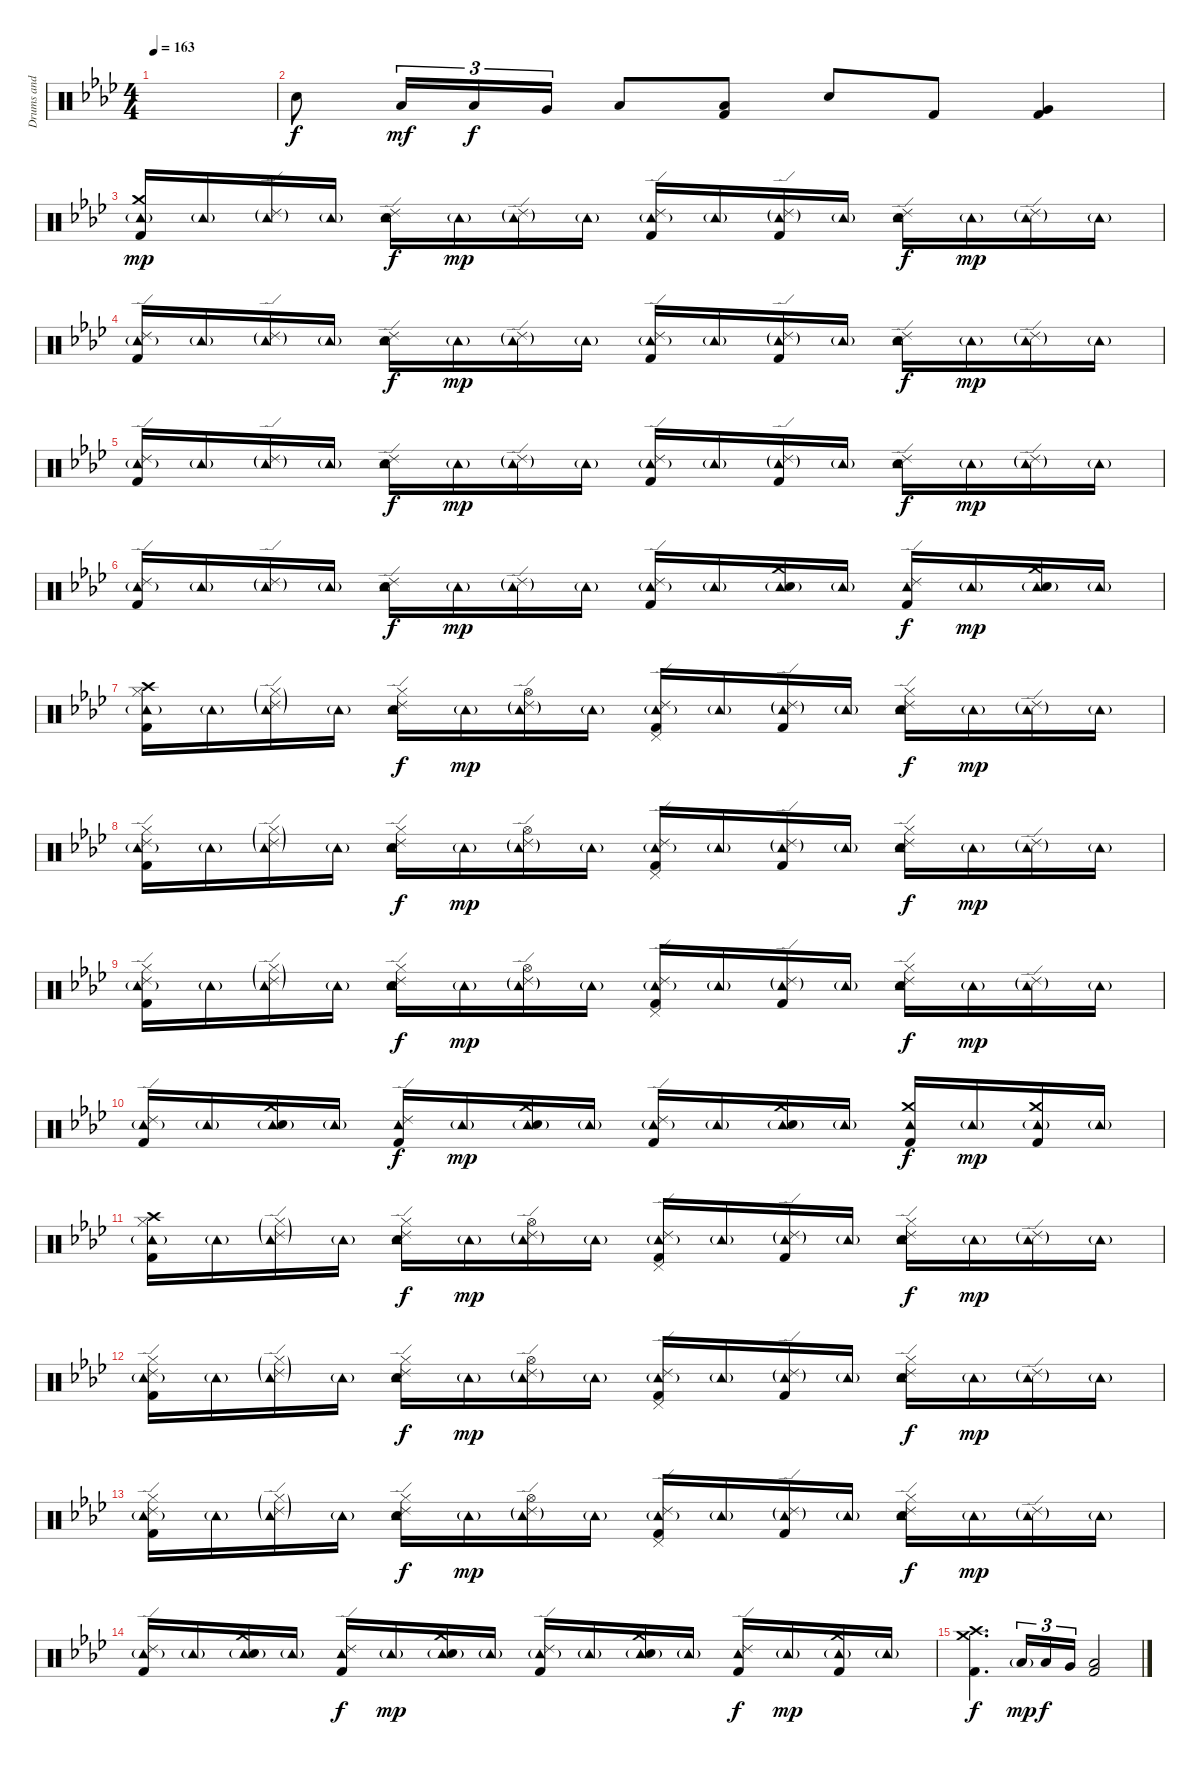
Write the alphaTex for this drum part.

\track ("Drums and Perc." "Drums and ") {instrument percussion}
\staff {score}
\articulation defaults
\ts (4 4)
\tempo 163
\clef neutral
\ks fminor
|
"Snare (hit) 2".8{dy f} "Low Tom (hit)".16{tu (3 2) dy mf} "Low Tom (hit)".16{tu (3 2) dy f} "Very Low Tom (hit)".16{tu (3 2)} "Low Floor Tom (hit)".8 ("Low Floor Tom (hit)" "Kick (hit) 2").8 "Snare (hit) 2".8 "Kick (hit) 2".8 ("Very Low Tom (hit)" "Kick (hit) 2").4 |
("Crash medium (hit)" "Tambourine (hit)"{g} "Kick (hit) 2").16{dy mp} "Tambourine (hit)"{g}.16 ("Ride (edge) 2"{g} "Tambourine (hit)"{g}).16 "Tambourine (hit)"{g}.16 ("Ride (edge) 2" "Tambourine (hit)" "Snare (hit) 2").16{dy f} "Tambourine (hit)"{g}.16{dy mp} ("Ride (edge) 2"{g} "Tambourine (hit)"{g}).16 "Tambourine (hit)"{g}.16 ("Ride (edge) 2" "Tambourine (hit)"{g} "Kick (hit) 2").16 "Tambourine (hit)"{g}.16 ("Ride (edge) 2"{g} "Tambourine (hit)"{g} "Kick (hit) 2").16 "Tambourine (hit)"{g}.16 ("Ride (edge) 2" "Tambourine (hit)" "Snare (hit) 2").16{dy f} "Tambourine (hit)"{g}.16{dy mp} ("Ride (edge) 2"{g} "Tambourine (hit)"{g}).16 "Tambourine (hit)"{g}.16 |
("Ride (edge) 2" "Tambourine (hit)"{g} "Kick (hit) 2").16 "Tambourine (hit)"{g}.16 ("Ride (edge) 2"{g} "Tambourine (hit)"{g}).16 "Tambourine (hit)"{g}.16 ("Ride (edge) 2" "Tambourine (hit)" "Snare (hit) 2").16{dy f} "Tambourine (hit)"{g}.16{dy mp} ("Ride (edge) 2"{g} "Tambourine (hit)"{g}).16 "Tambourine (hit)"{g}.16 ("Ride (edge) 2" "Tambourine (hit)"{g} "Kick (hit) 2").16 "Tambourine (hit)"{g}.16 ("Ride (edge) 2"{g} "Tambourine (hit)"{g} "Kick (hit) 2").16 "Tambourine (hit)"{g}.16 ("Ride (edge) 2" "Tambourine (hit)" "Snare (hit) 2").16{dy f} "Tambourine (hit)"{g}.16{dy mp} ("Ride (edge) 2"{g} "Tambourine (hit)"{g}).16 "Tambourine (hit)"{g}.16 |
("Ride (edge) 2" "Tambourine (hit)"{g} "Kick (hit) 2").16 "Tambourine (hit)"{g}.16 ("Ride (edge) 2"{g} "Tambourine (hit)"{g}).16 "Tambourine (hit)"{g}.16 ("Ride (edge) 2" "Tambourine (hit)" "Snare (hit) 2").16{dy f} "Tambourine (hit)"{g}.16{dy mp} ("Ride (edge) 2"{g} "Tambourine (hit)"{g}).16 "Tambourine (hit)"{g}.16 ("Ride (edge) 2" "Tambourine (hit)"{g} "Kick (hit) 2").16 "Tambourine (hit)"{g}.16 ("Ride (edge) 2"{g} "Tambourine (hit)"{g} "Kick (hit) 2").16 "Tambourine (hit)"{g}.16 ("Ride (edge) 2" "Tambourine (hit)" "Snare (hit) 2").16{dy f} "Tambourine (hit)"{g}.16{dy mp} ("Ride (edge) 2"{g} "Tambourine (hit)"{g}).16 "Tambourine (hit)"{g}.16 |
("Ride (edge) 2" "Tambourine (hit)"{g} "Kick (hit) 2").16 "Tambourine (hit)"{g}.16 ("Ride (edge) 2"{g} "Tambourine (hit)"{g}).16 "Tambourine (hit)"{g}.16 ("Ride (edge) 2" "Tambourine (hit)" "Snare (hit) 2").16{dy f} "Tambourine (hit)"{g}.16{dy mp} ("Ride (edge) 2"{g} "Tambourine (hit)"{g}).16 "Tambourine (hit)"{g}.16 ("Ride (edge) 2" "Tambourine (hit)"{g} "Kick (hit) 2").16 "Tambourine (hit)"{g}.16 ("Crash medium (hit)" "Tambourine (hit)"{g} "Snare (hit) 2").16 "Tambourine (hit)"{g}.16 ("Ride (edge) 2" "Tambourine (hit)" "Kick (hit) 2").16{dy f} "Tambourine (hit)"{g}.16{dy mp} ("Crash medium (hit)" "Tambourine (hit)"{g} "Snare (hit) 2").16 "Tambourine (hit)"{g}.16 |
("Crash high (hit)" "Tambourine (hit)"{g} "Hi-Hat (closed)" "Kick (hit) 2").16 "Tambourine (hit)"{g}.16 ("Ride (edge) 2"{g} "Tambourine (hit)"{g} "Hi-Hat (closed)"{g}).16 "Tambourine (hit)"{g}.16 ("Ride (edge) 2" "Tambourine (hit)" "Hi-Hat (closed)" "Snare (hit) 2").16{dy f} "Tambourine (hit)"{g}.16{dy mp} ("Ride (edge) 2"{g} "Tambourine (hit)"{g} "Hi-Hat (open)").16 "Tambourine (hit)"{g}.16 ("Ride (edge) 2" "Tambourine (hit)"{g} "Pedal Hi-Hat (hit)" "Kick (hit) 2").16 "Tambourine (hit)"{g}.16 ("Ride (edge) 2"{g} "Tambourine (hit)"{g} "Kick (hit) 2").16 "Tambourine (hit)"{g}.16 ("Ride (edge) 2" "Tambourine (hit)" "Hi-Hat (closed)" "Snare (hit) 2").16{dy f} "Tambourine (hit)"{g}.16{dy mp} ("Ride (edge) 2"{g} "Tambourine (hit)"{g}).16 "Tambourine (hit)"{g}.16 |
("Ride (edge) 2" "Tambourine (hit)"{g} "Hi-Hat (closed)" "Kick (hit) 2").16 "Tambourine (hit)"{g}.16 ("Ride (edge) 2"{g} "Tambourine (hit)"{g} "Hi-Hat (closed)"{g}).16 "Tambourine (hit)"{g}.16 ("Ride (edge) 2" "Tambourine (hit)" "Hi-Hat (closed)" "Snare (hit) 2").16{dy f} "Tambourine (hit)"{g}.16{dy mp} ("Ride (edge) 2"{g} "Tambourine (hit)"{g} "Hi-Hat (open)").16 "Tambourine (hit)"{g}.16 ("Ride (edge) 2" "Tambourine (hit)"{g} "Pedal Hi-Hat (hit)" "Kick (hit) 2").16 "Tambourine (hit)"{g}.16 ("Ride (edge) 2"{g} "Tambourine (hit)"{g} "Kick (hit) 2").16 "Tambourine (hit)"{g}.16 ("Ride (edge) 2" "Tambourine (hit)" "Hi-Hat (closed)" "Snare (hit) 2").16{dy f} "Tambourine (hit)"{g}.16{dy mp} ("Ride (edge) 2"{g} "Tambourine (hit)"{g}).16 "Tambourine (hit)"{g}.16 |
("Ride (edge) 2" "Tambourine (hit)"{g} "Hi-Hat (closed)" "Kick (hit) 2").16 "Tambourine (hit)"{g}.16 ("Ride (edge) 2"{g} "Tambourine (hit)"{g} "Hi-Hat (closed)"{g}).16 "Tambourine (hit)"{g}.16 ("Ride (edge) 2" "Tambourine (hit)" "Hi-Hat (closed)" "Snare (hit) 2").16{dy f} "Tambourine (hit)"{g}.16{dy mp} ("Ride (edge) 2"{g} "Tambourine (hit)"{g} "Hi-Hat (open)").16 "Tambourine (hit)"{g}.16 ("Ride (edge) 2" "Tambourine (hit)"{g} "Pedal Hi-Hat (hit)" "Kick (hit) 2").16 "Tambourine (hit)"{g}.16 ("Ride (edge) 2"{g} "Tambourine (hit)"{g} "Kick (hit) 2").16 "Tambourine (hit)"{g}.16 ("Ride (edge) 2" "Tambourine (hit)" "Hi-Hat (closed)" "Snare (hit) 2").16{dy f} "Tambourine (hit)"{g}.16{dy mp} ("Ride (edge) 2"{g} "Tambourine (hit)"{g}).16 "Tambourine (hit)"{g}.16 |
("Ride (edge) 2" "Tambourine (hit)"{g} "Kick (hit) 2").16 "Tambourine (hit)"{g}.16 ("Crash medium (hit)" "Tambourine (hit)"{g} "Snare (hit) 2").16 "Tambourine (hit)"{g}.16 ("Ride (edge) 2" "Tambourine (hit)" "Kick (hit) 2").16{dy f} "Tambourine (hit)"{g}.16{dy mp} ("Crash medium (hit)" "Tambourine (hit)"{g} "Snare (hit) 2").16 "Tambourine (hit)"{g}.16 ("Ride (edge) 2" "Tambourine (hit)"{g} "Kick (hit) 2").16 "Tambourine (hit)"{g}.16 ("Crash medium (hit)" "Tambourine (hit)"{g} "Snare (hit) 2").16 "Tambourine (hit)"{g}.16 ("Crash medium (hit)" "Tambourine (hit)" "Kick (hit) 2").16{dy f} "Tambourine (hit)"{g}.16{dy mp} ("Crash medium (hit)" "Tambourine (hit)"{g} "Kick (hit) 2").16 "Tambourine (hit)"{g}.16 |
("Crash high (hit)" "Tambourine (hit)"{g} "Hi-Hat (closed)" "Kick (hit) 2").16 "Tambourine (hit)"{g}.16 ("Ride (edge) 2"{g} "Tambourine (hit)"{g} "Hi-Hat (closed)"{g}).16 "Tambourine (hit)"{g}.16 ("Ride (edge) 2" "Tambourine (hit)" "Hi-Hat (closed)" "Snare (hit) 2").16{dy f} "Tambourine (hit)"{g}.16{dy mp} ("Ride (edge) 2"{g} "Tambourine (hit)"{g} "Hi-Hat (open)").16 "Tambourine (hit)"{g}.16 ("Ride (edge) 2" "Tambourine (hit)"{g} "Pedal Hi-Hat (hit)" "Kick (hit) 2").16 "Tambourine (hit)"{g}.16 ("Ride (edge) 2"{g} "Tambourine (hit)"{g} "Kick (hit) 2").16 "Tambourine (hit)"{g}.16 ("Ride (edge) 2" "Tambourine (hit)" "Hi-Hat (closed)" "Snare (hit) 2").16{dy f} "Tambourine (hit)"{g}.16{dy mp} ("Ride (edge) 2"{g} "Tambourine (hit)"{g}).16 "Tambourine (hit)"{g}.16 |
("Ride (edge) 2" "Tambourine (hit)"{g} "Hi-Hat (closed)" "Kick (hit) 2").16 "Tambourine (hit)"{g}.16 ("Ride (edge) 2"{g} "Tambourine (hit)"{g} "Hi-Hat (closed)"{g}).16 "Tambourine (hit)"{g}.16 ("Ride (edge) 2" "Tambourine (hit)" "Hi-Hat (closed)" "Snare (hit) 2").16{dy f} "Tambourine (hit)"{g}.16{dy mp} ("Ride (edge) 2"{g} "Tambourine (hit)"{g} "Hi-Hat (open)").16 "Tambourine (hit)"{g}.16 ("Ride (edge) 2" "Tambourine (hit)"{g} "Pedal Hi-Hat (hit)" "Kick (hit) 2").16 "Tambourine (hit)"{g}.16 ("Ride (edge) 2"{g} "Tambourine (hit)"{g} "Kick (hit) 2").16 "Tambourine (hit)"{g}.16 ("Ride (edge) 2" "Tambourine (hit)" "Hi-Hat (closed)" "Snare (hit) 2").16{dy f} "Tambourine (hit)"{g}.16{dy mp} ("Ride (edge) 2"{g} "Tambourine (hit)"{g}).16 "Tambourine (hit)"{g}.16 |
("Ride (edge) 2" "Tambourine (hit)"{g} "Hi-Hat (closed)" "Kick (hit) 2").16 "Tambourine (hit)"{g}.16 ("Ride (edge) 2"{g} "Tambourine (hit)"{g} "Hi-Hat (closed)"{g}).16 "Tambourine (hit)"{g}.16 ("Ride (edge) 2" "Tambourine (hit)" "Hi-Hat (closed)" "Snare (hit) 2").16{dy f} "Tambourine (hit)"{g}.16{dy mp} ("Ride (edge) 2"{g} "Tambourine (hit)"{g} "Hi-Hat (open)").16 "Tambourine (hit)"{g}.16 ("Ride (edge) 2" "Tambourine (hit)"{g} "Pedal Hi-Hat (hit)" "Kick (hit) 2").16 "Tambourine (hit)"{g}.16 ("Ride (edge) 2"{g} "Tambourine (hit)"{g} "Kick (hit) 2").16 "Tambourine (hit)"{g}.16 ("Ride (edge) 2" "Tambourine (hit)" "Hi-Hat (closed)" "Snare (hit) 2").16{dy f} "Tambourine (hit)"{g}.16{dy mp} ("Ride (edge) 2"{g} "Tambourine (hit)"{g}).16 "Tambourine (hit)"{g}.16 |
("Ride (edge) 2" "Tambourine (hit)"{g} "Kick (hit) 2").16 "Tambourine (hit)"{g}.16 ("Crash medium (hit)" "Tambourine (hit)"{g} "Snare (hit) 2").16 "Tambourine (hit)"{g}.16 ("Ride (edge) 2" "Tambourine (hit)" "Kick (hit) 2").16{dy f} "Tambourine (hit)"{g}.16{dy mp} ("Crash medium (hit)" "Tambourine (hit)"{g} "Snare (hit) 2").16 "Tambourine (hit)"{g}.16 ("Ride (edge) 2" "Tambourine (hit)"{g} "Kick (hit) 2").16 "Tambourine (hit)"{g}.16 ("Crash medium (hit)" "Tambourine (hit)"{g} "Snare (hit) 2").16 "Tambourine (hit)"{g}.16 ("Ride (edge) 2" "Tambourine (hit)" "Kick (hit) 2").16{dy f} "Tambourine (hit)"{g}.16{dy mp} ("Crash medium (hit)" "Tambourine (hit)"{g} "Kick (hit) 2").16 "Tambourine (hit)"{g}.16 |
("Crash high (hit)" "Crash medium (hit)" "Kick (hit) 2").4{d dy f} "Low Tom (hit)"{g}.16{tu (3 2) dy mp} "Low Tom (hit)".16{tu (3 2) dy f} "Very Low Tom (hit)".16{tu (3 2)} ("Low Floor Tom (hit)" "Kick (hit) 2").2
